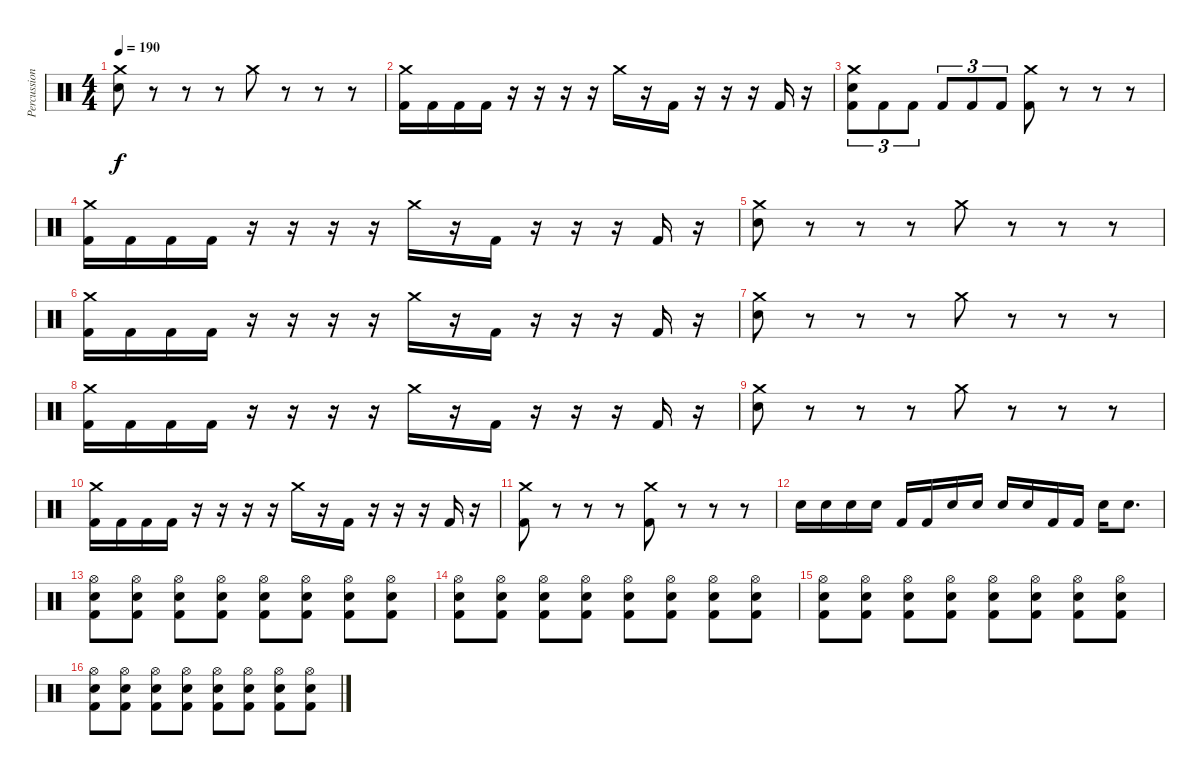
\track ("Percussion" "Percussion") {instrument percussion}
\staff {score}
\articulation defaults
\ts (4 4)
\tempo 190
\clef neutral
\ks c
("Crash medium (hit)" "Snare (hit) 2").8{dy f} r.8 r.8 r.8 "Crash medium (hit)".8 r.8 r.8 r.8 |
("Crash medium (hit)" "Kick (hit) 2").16 "Kick (hit) 2".16 "Kick (hit) 2".16 "Kick (hit) 2".16 r.16 r.16 r.16 r.16 "Crash medium (hit)".16 r.16 "Kick (hit) 2".16 r.16 r.16 r.16 "Kick (hit) 2".16 r.16 |
("Crash medium (hit)" "Snare (hit) 2" "Kick (hit) 2").8{tu (3 2)} "Kick (hit) 2".8{tu (3 2)} "Kick (hit) 2".8{tu (3 2)} "Kick (hit) 2".8{tu (3 2)} "Kick (hit) 2".8{tu (3 2)} "Kick (hit) 2".8{tu (3 2)} ("Crash medium (hit)" "Kick (hit) 2").8 r.8 r.8 r.8 |
("Crash medium (hit)" "Kick (hit) 2").16 "Kick (hit) 2".16 "Kick (hit) 2".16 "Kick (hit) 2".16 r.16 r.16 r.16 r.16 "Crash medium (hit)".16 r.16 "Kick (hit) 2".16 r.16 r.16 r.16 "Kick (hit) 2".16 r.16 |
("Crash medium (hit)" "Snare (hit) 2").8 r.8 r.8 r.8 "Crash medium (hit)".8 r.8 r.8 r.8 |
("Crash medium (hit)" "Kick (hit) 2").16 "Kick (hit) 2".16 "Kick (hit) 2".16 "Kick (hit) 2".16 r.16 r.16 r.16 r.16 "Crash medium (hit)".16 r.16 "Kick (hit) 2".16 r.16 r.16 r.16 "Kick (hit) 2".16 r.16 |
("Crash medium (hit)" "Snare (hit) 2").8 r.8 r.8 r.8 "Crash medium (hit)".8 r.8 r.8 r.8 |
("Crash medium (hit)" "Kick (hit) 2").16 "Kick (hit) 2".16 "Kick (hit) 2".16 "Kick (hit) 2".16 r.16 r.16 r.16 r.16 "Crash medium (hit)".16 r.16 "Kick (hit) 2".16 r.16 r.16 r.16 "Kick (hit) 2".16 r.16 |
("Crash medium (hit)" "Snare (hit) 2").8 r.8 r.8 r.8 "Crash medium (hit)".8 r.8 r.8 r.8 |
("Crash medium (hit)" "Kick (hit) 2").16 "Kick (hit) 2".16 "Kick (hit) 2".16 "Kick (hit) 2".16 r.16 r.16 r.16 r.16 "Crash medium (hit)".16 r.16 "Kick (hit) 2".16 r.16 r.16 r.16 "Kick (hit) 2".16 r.16 |
("Crash medium (hit)" "Kick (hit) 2").8 r.8 r.8 r.8 ("Crash medium (hit)" "Kick (hit) 2").8 r.8 r.8 r.8 |
"Snare (hit) 2".16 "Snare (hit) 2".16 "Snare (hit) 2".16 "Snare (hit) 2".16 "Kick (hit) 2".16 "Kick (hit) 2".16 "Snare (hit) 2".16 "Snare (hit) 2".16 "Snare (hit) 2".16 "Snare (hit) 2".16 "Kick (hit) 2".16 "Kick (hit) 2".16 "Snare (hit) 2".16 "Snare (hit) 2".8{d} |
("Hi-Hat (open)" "Snare (hit) 2" "Kick (hit) 2").8 ("Hi-Hat (open)" "Snare (hit) 2" "Kick (hit) 2").8 ("Hi-Hat (open)" "Snare (hit) 2" "Kick (hit) 2").8 ("Hi-Hat (open)" "Snare (hit) 2" "Kick (hit) 2").8 ("Hi-Hat (open)" "Snare (hit) 2" "Kick (hit) 2").8 ("Hi-Hat (open)" "Snare (hit) 2" "Kick (hit) 2").8 ("Hi-Hat (open)" "Snare (hit) 2" "Kick (hit) 2").8 ("Hi-Hat (open)" "Snare (hit) 2" "Kick (hit) 2").8 |
("Hi-Hat (open)" "Snare (hit) 2" "Kick (hit) 2").8 ("Hi-Hat (open)" "Snare (hit) 2" "Kick (hit) 2").8 ("Hi-Hat (open)" "Snare (hit) 2" "Kick (hit) 2").8 ("Hi-Hat (open)" "Snare (hit) 2" "Kick (hit) 2").8 ("Hi-Hat (open)" "Snare (hit) 2" "Kick (hit) 2").8 ("Hi-Hat (open)" "Snare (hit) 2" "Kick (hit) 2").8 ("Hi-Hat (open)" "Snare (hit) 2" "Kick (hit) 2").8 ("Hi-Hat (open)" "Snare (hit) 2" "Kick (hit) 2").8 |
("Hi-Hat (open)" "Snare (hit) 2" "Kick (hit) 2").8 ("Hi-Hat (open)" "Snare (hit) 2" "Kick (hit) 2").8 ("Hi-Hat (open)" "Snare (hit) 2" "Kick (hit) 2").8 ("Hi-Hat (open)" "Snare (hit) 2" "Kick (hit) 2").8 ("Hi-Hat (open)" "Snare (hit) 2" "Kick (hit) 2").8 ("Hi-Hat (open)" "Snare (hit) 2" "Kick (hit) 2").8 ("Hi-Hat (open)" "Snare (hit) 2" "Kick (hit) 2").8 ("Hi-Hat (open)" "Snare (hit) 2" "Kick (hit) 2").8 |
("Hi-Hat (open)" "Snare (hit) 2" "Kick (hit) 2").8 ("Hi-Hat (open)" "Snare (hit) 2" "Kick (hit) 2").8 ("Hi-Hat (open)" "Snare (hit) 2" "Kick (hit) 2").8 ("Hi-Hat (open)" "Snare (hit) 2" "Kick (hit) 2").8 ("Hi-Hat (open)" "Snare (hit) 2" "Kick (hit) 2").8 ("Hi-Hat (open)" "Snare (hit) 2" "Kick (hit) 2").8 ("Hi-Hat (open)" "Snare (hit) 2" "Kick (hit) 2").8 ("Hi-Hat (open)" "Snare (hit) 2" "Kick (hit) 2").8
